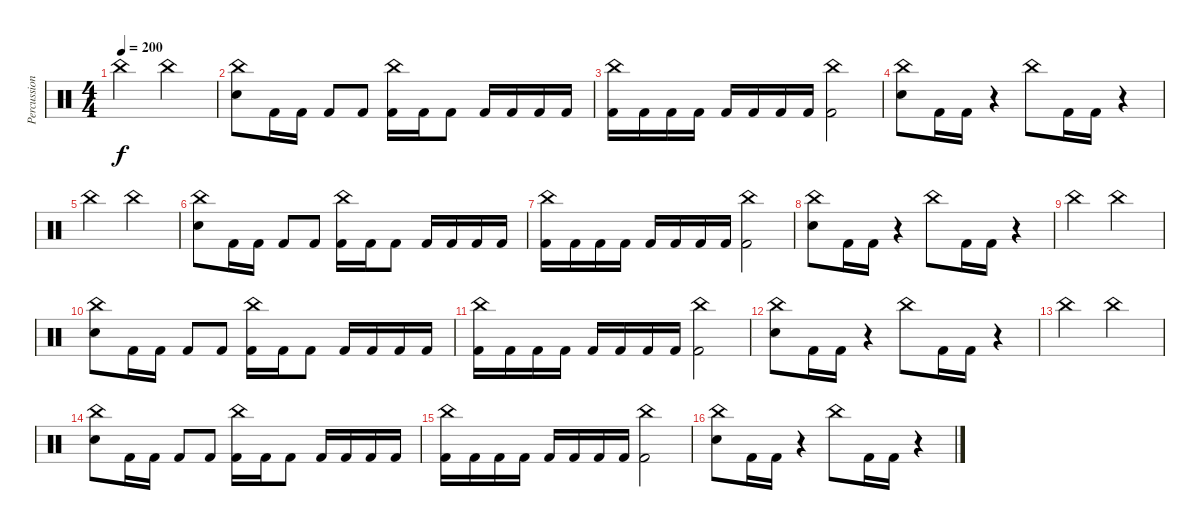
\track ("Percussions" "Percussion") {instrument percussion}
\staff {score}
\articulation defaults
\ts (4 4)
\tempo 200
\clef neutral
\ks c "China (hit)".2{dy f} "China (hit)".2
|
("China (hit)" "Electric Snare (hit)").8 "Kick (hit) 2".16 "Kick (hit) 2".16 "Kick (hit) 2".8 "Kick (hit) 2".8 ("China (hit)" "Kick (hit) 2").16 "Kick (hit) 2".16 "Kick (hit) 2".8 "Kick (hit) 2".16 "Kick (hit) 2".16 "Kick (hit) 2".16 "Kick (hit) 2".16 |
("China (hit)" "Kick (hit) 2").16 "Kick (hit) 2".16 "Kick (hit) 2".16 "Kick (hit) 2".16 "Kick (hit) 2".16 "Kick (hit) 2".16 "Kick (hit) 2".16 "Kick (hit) 2".16 ("China (hit)" "Kick (hit) 2").2 |
("China (hit)" "Electric Snare (hit)").8 "Kick (hit) 2".16 "Kick (hit) 2".16 r.4 "China (hit)".8 "Kick (hit) 2".16 "Kick (hit) 2".16 r.4 |
"China (hit)".2 "China (hit)".2 |
("China (hit)" "Electric Snare (hit)").8 "Kick (hit) 2".16 "Kick (hit) 2".16 "Kick (hit) 2".8 "Kick (hit) 2".8 ("China (hit)" "Kick (hit) 2").16 "Kick (hit) 2".16 "Kick (hit) 2".8 "Kick (hit) 2".16 "Kick (hit) 2".16 "Kick (hit) 2".16 "Kick (hit) 2".16 |
("China (hit)" "Kick (hit) 2").16 "Kick (hit) 2".16 "Kick (hit) 2".16 "Kick (hit) 2".16 "Kick (hit) 2".16 "Kick (hit) 2".16 "Kick (hit) 2".16 "Kick (hit) 2".16 ("China (hit)" "Kick (hit) 2").2 |
("China (hit)" "Electric Snare (hit)").8 "Kick (hit) 2".16 "Kick (hit) 2".16 r.4 "China (hit)".8 "Kick (hit) 2".16 "Kick (hit) 2".16 r.4 |
"China (hit)".2 "China (hit)".2 |
("China (hit)" "Electric Snare (hit)").8 "Kick (hit) 2".16 "Kick (hit) 2".16 "Kick (hit) 2".8 "Kick (hit) 2".8 ("China (hit)" "Kick (hit) 2").16 "Kick (hit) 2".16 "Kick (hit) 2".8 "Kick (hit) 2".16 "Kick (hit) 2".16 "Kick (hit) 2".16 "Kick (hit) 2".16 |
("China (hit)" "Kick (hit) 2").16 "Kick (hit) 2".16 "Kick (hit) 2".16 "Kick (hit) 2".16 "Kick (hit) 2".16 "Kick (hit) 2".16 "Kick (hit) 2".16 "Kick (hit) 2".16 ("China (hit)" "Kick (hit) 2").2 |
("China (hit)" "Electric Snare (hit)").8 "Kick (hit) 2".16 "Kick (hit) 2".16 r.4 "China (hit)".8 "Kick (hit) 2".16 "Kick (hit) 2".16 r.4 |
"China (hit)".2 "China (hit)".2 |
("China (hit)" "Electric Snare (hit)").8 "Kick (hit) 2".16 "Kick (hit) 2".16 "Kick (hit) 2".8 "Kick (hit) 2".8 ("China (hit)" "Kick (hit) 2").16 "Kick (hit) 2".16 "Kick (hit) 2".8 "Kick (hit) 2".16 "Kick (hit) 2".16 "Kick (hit) 2".16 "Kick (hit) 2".16 |
("China (hit)" "Kick (hit) 2").16 "Kick (hit) 2".16 "Kick (hit) 2".16 "Kick (hit) 2".16 "Kick (hit) 2".16 "Kick (hit) 2".16 "Kick (hit) 2".16 "Kick (hit) 2".16 ("China (hit)" "Kick (hit) 2").2 |
("China (hit)" "Electric Snare (hit)").8 "Kick (hit) 2".16 "Kick (hit) 2".16 r.4 "China (hit)".8 "Kick (hit) 2".16 "Kick (hit) 2".16 r.4
